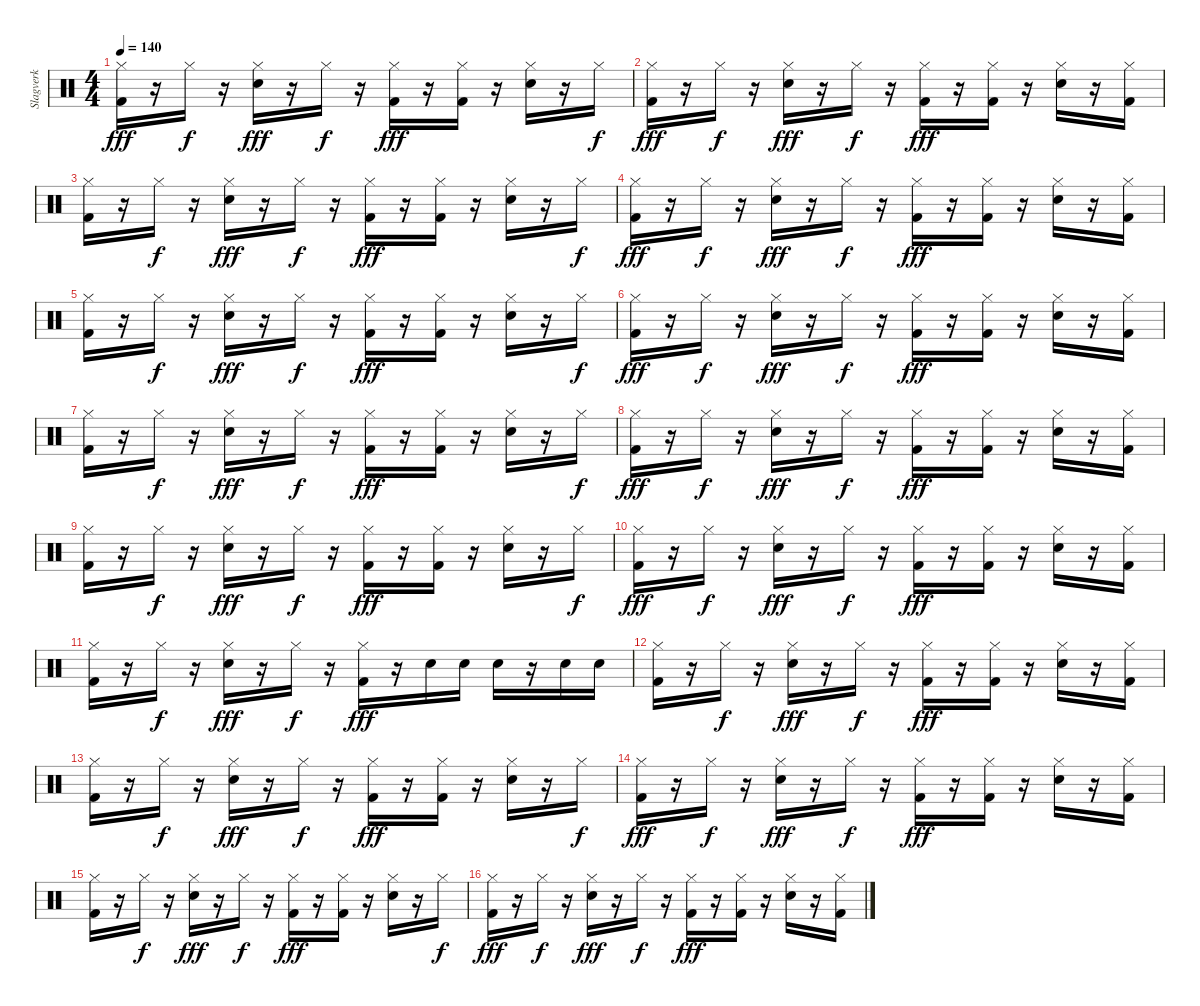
\track ("Slagverk" "Slagverk") {instrument percussion}
\staff {score}
\articulation defaults
\ts (4 4)
\tempo 140
\clef neutral
\ks c
("Hi-Hat (closed)" "Kick (hit) 2").16{dy fff} r.16 "Hi-Hat (closed)".16{dy f} r.16 ("Hi-Hat (closed)" "Electric Snare (hit)").16{dy fff} r.16 "Hi-Hat (closed)".16{dy f} r.16 ("Hi-Hat (closed)" "Kick (hit) 2").16{dy fff} r.16 ("Hi-Hat (closed)" "Kick (hit) 2").16 r.16 ("Hi-Hat (closed)" "Electric Snare (hit)").16 r.16 "Hi-Hat (closed)".16{dy f} |
("Hi-Hat (closed)" "Kick (hit) 2").16{dy fff} r.16 "Hi-Hat (closed)".16{dy f} r.16 ("Hi-Hat (closed)" "Electric Snare (hit)").16{dy fff} r.16 "Hi-Hat (closed)".16{dy f} r.16 ("Hi-Hat (closed)" "Kick (hit) 2").16{dy fff} r.16 ("Hi-Hat (closed)" "Kick (hit) 2").16 r.16 ("Hi-Hat (closed)" "Electric Snare (hit)").16 r.16 ("Hi-Hat (closed)" "Kick (hit) 2").16 |
("Hi-Hat (closed)" "Kick (hit) 2").16 r.16 "Hi-Hat (closed)".16{dy f} r.16 ("Hi-Hat (closed)" "Electric Snare (hit)").16{dy fff} r.16 "Hi-Hat (closed)".16{dy f} r.16 ("Hi-Hat (closed)" "Kick (hit) 2").16{dy fff} r.16 ("Hi-Hat (closed)" "Kick (hit) 2").16 r.16 ("Hi-Hat (closed)" "Electric Snare (hit)").16 r.16 "Hi-Hat (closed)".16{dy f} |
("Hi-Hat (closed)" "Kick (hit) 2").16{dy fff} r.16 "Hi-Hat (closed)".16{dy f} r.16 ("Hi-Hat (closed)" "Electric Snare (hit)").16{dy fff} r.16 "Hi-Hat (closed)".16{dy f} r.16 ("Hi-Hat (closed)" "Kick (hit) 2").16{dy fff} r.16 ("Hi-Hat (closed)" "Kick (hit) 2").16 r.16 ("Hi-Hat (closed)" "Electric Snare (hit)").16 r.16 ("Hi-Hat (closed)" "Kick (hit) 2").16 |
("Hi-Hat (closed)" "Kick (hit) 2").16 r.16 "Hi-Hat (closed)".16{dy f} r.16 ("Hi-Hat (closed)" "Electric Snare (hit)").16{dy fff} r.16 "Hi-Hat (closed)".16{dy f} r.16 ("Hi-Hat (closed)" "Kick (hit) 2").16{dy fff} r.16 ("Hi-Hat (closed)" "Kick (hit) 2").16 r.16 ("Hi-Hat (closed)" "Electric Snare (hit)").16 r.16 "Hi-Hat (closed)".16{dy f} |
("Hi-Hat (closed)" "Kick (hit) 2").16{dy fff} r.16 "Hi-Hat (closed)".16{dy f} r.16 ("Hi-Hat (closed)" "Electric Snare (hit)").16{dy fff} r.16 "Hi-Hat (closed)".16{dy f} r.16 ("Hi-Hat (closed)" "Kick (hit) 2").16{dy fff} r.16 ("Hi-Hat (closed)" "Kick (hit) 2").16 r.16 ("Hi-Hat (closed)" "Electric Snare (hit)").16 r.16 ("Hi-Hat (closed)" "Kick (hit) 2").16 |
("Hi-Hat (closed)" "Kick (hit) 2").16 r.16 "Hi-Hat (closed)".16{dy f} r.16 ("Hi-Hat (closed)" "Electric Snare (hit)").16{dy fff} r.16 "Hi-Hat (closed)".16{dy f} r.16 ("Hi-Hat (closed)" "Kick (hit) 2").16{dy fff} r.16 ("Hi-Hat (closed)" "Kick (hit) 2").16 r.16 ("Hi-Hat (closed)" "Electric Snare (hit)").16 r.16 "Hi-Hat (closed)".16{dy f} |
("Hi-Hat (closed)" "Kick (hit) 2").16{dy fff} r.16 "Hi-Hat (closed)".16{dy f} r.16 ("Hi-Hat (closed)" "Electric Snare (hit)").16{dy fff} r.16 "Hi-Hat (closed)".16{dy f} r.16 ("Hi-Hat (closed)" "Kick (hit) 2").16{dy fff} r.16 ("Hi-Hat (closed)" "Kick (hit) 2").16 r.16 ("Hi-Hat (closed)" "Electric Snare (hit)").16 r.16 ("Hi-Hat (closed)" "Kick (hit) 2").16 |
("Hi-Hat (closed)" "Kick (hit) 2").16 r.16 "Hi-Hat (closed)".16{dy f} r.16 ("Hi-Hat (closed)" "Electric Snare (hit)").16{dy fff} r.16 "Hi-Hat (closed)".16{dy f} r.16 ("Hi-Hat (closed)" "Kick (hit) 2").16{dy fff} r.16 ("Hi-Hat (closed)" "Kick (hit) 2").16 r.16 ("Hi-Hat (closed)" "Electric Snare (hit)").16 r.16 "Hi-Hat (closed)".16{dy f} |
("Hi-Hat (closed)" "Kick (hit) 2").16{dy fff} r.16 "Hi-Hat (closed)".16{dy f} r.16 ("Hi-Hat (closed)" "Electric Snare (hit)").16{dy fff} r.16 "Hi-Hat (closed)".16{dy f} r.16 ("Hi-Hat (closed)" "Kick (hit) 2").16{dy fff} r.16 ("Hi-Hat (closed)" "Kick (hit) 2").16 r.16 ("Hi-Hat (closed)" "Electric Snare (hit)").16 r.16 ("Hi-Hat (closed)" "Kick (hit) 2").16 |
("Hi-Hat (closed)" "Kick (hit) 2").16 r.16 "Hi-Hat (closed)".16{dy f} r.16 ("Hi-Hat (closed)" "Electric Snare (hit)").16{dy fff} r.16 "Hi-Hat (closed)".16{dy f} r.16 ("Hi-Hat (closed)" "Kick (hit) 2").16{dy fff} r.16 "Electric Snare (hit)".16 "Electric Snare (hit)".16 "Electric Snare (hit)".16 r.16 "Electric Snare (hit)".16 "Electric Snare (hit)".16 |
("Hi-Hat (closed)" "Kick (hit) 2").16 r.16 "Hi-Hat (closed)".16{dy f} r.16 ("Hi-Hat (closed)" "Electric Snare (hit)").16{dy fff} r.16 "Hi-Hat (closed)".16{dy f} r.16 ("Hi-Hat (closed)" "Kick (hit) 2").16{dy fff} r.16 ("Hi-Hat (closed)" "Kick (hit) 2").16 r.16 ("Hi-Hat (closed)" "Electric Snare (hit)").16 r.16 ("Hi-Hat (closed)" "Kick (hit) 2").16 |
("Hi-Hat (closed)" "Kick (hit) 2").16 r.16 "Hi-Hat (closed)".16{dy f} r.16 ("Hi-Hat (closed)" "Electric Snare (hit)").16{dy fff} r.16 "Hi-Hat (closed)".16{dy f} r.16 ("Hi-Hat (closed)" "Kick (hit) 2").16{dy fff} r.16 ("Hi-Hat (closed)" "Kick (hit) 2").16 r.16 ("Hi-Hat (closed)" "Electric Snare (hit)").16 r.16 "Hi-Hat (closed)".16{dy f} |
("Hi-Hat (closed)" "Kick (hit) 2").16{dy fff} r.16 "Hi-Hat (closed)".16{dy f} r.16 ("Hi-Hat (closed)" "Electric Snare (hit)").16{dy fff} r.16 "Hi-Hat (closed)".16{dy f} r.16 ("Hi-Hat (closed)" "Kick (hit) 2").16{dy fff} r.16 ("Hi-Hat (closed)" "Kick (hit) 2").16 r.16 ("Hi-Hat (closed)" "Electric Snare (hit)").16 r.16 ("Hi-Hat (closed)" "Kick (hit) 2").16 |
("Hi-Hat (closed)" "Kick (hit) 2").16 r.16 "Hi-Hat (closed)".16{dy f} r.16 ("Hi-Hat (closed)" "Electric Snare (hit)").16{dy fff} r.16 "Hi-Hat (closed)".16{dy f} r.16 ("Hi-Hat (closed)" "Kick (hit) 2").16{dy fff} r.16 ("Hi-Hat (closed)" "Kick (hit) 2").16 r.16 ("Hi-Hat (closed)" "Electric Snare (hit)").16 r.16 "Hi-Hat (closed)".16{dy f} |
("Hi-Hat (closed)" "Kick (hit) 2").16{dy fff} r.16 "Hi-Hat (closed)".16{dy f} r.16 ("Hi-Hat (closed)" "Electric Snare (hit)").16{dy fff} r.16 "Hi-Hat (closed)".16{dy f} r.16 ("Hi-Hat (closed)" "Kick (hit) 2").16{dy fff} r.16 ("Hi-Hat (closed)" "Kick (hit) 2").16 r.16 ("Hi-Hat (closed)" "Electric Snare (hit)").16 r.16 ("Hi-Hat (closed)" "Kick (hit) 2").16
